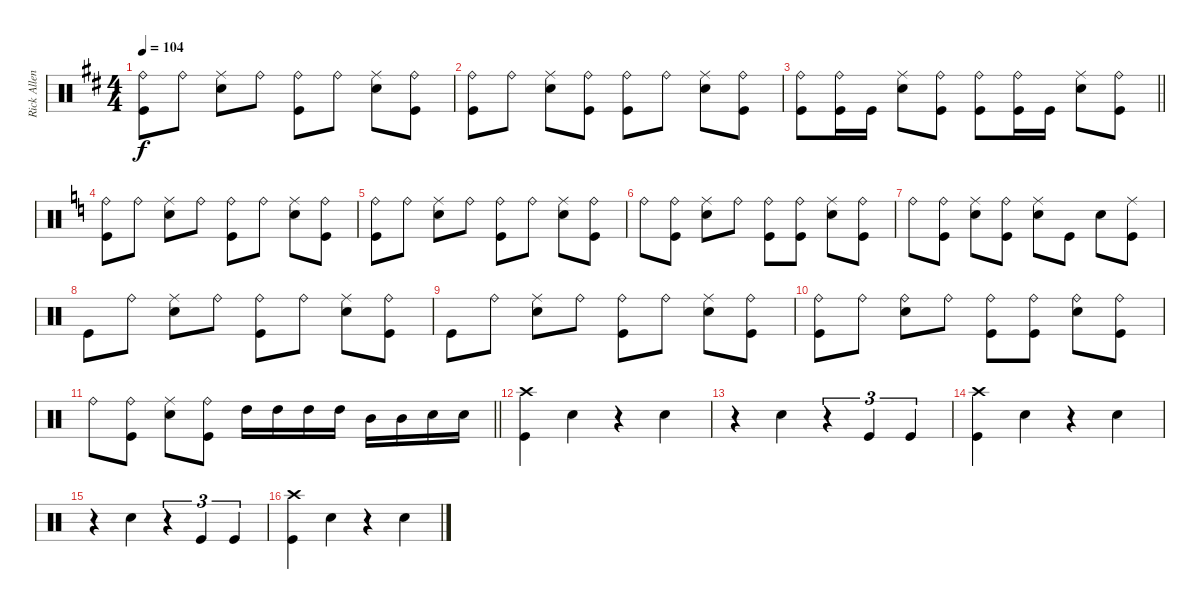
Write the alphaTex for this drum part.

\track ("Rick Allen" "Rick Allen") {instrument percussion}
\staff {score}
\articulation defaults
\ts (4 4)
\tempo 104
\clef neutral
\ks bminor
("Ride (bell)" "Kick (hit)").8{dy f} "Ride (bell)".8 ("Ride (middle)" "Snare (hit) 2").8 "Ride (bell)".8 ("Ride (bell)" "Kick (hit)").8 "Ride (bell)".8 ("Ride (middle)" "Snare (hit) 2").8 ("Ride (bell)" "Kick (hit)").8 |
("Ride (bell)" "Kick (hit)").8 "Ride (bell)".8 ("Ride (middle)" "Snare (hit) 2").8 ("Ride (bell)" "Kick (hit)").8 ("Ride (bell)" "Kick (hit)").8 "Ride (bell)".8 ("Ride (middle)" "Snare (hit) 2").8 ("Ride (bell)" "Kick (hit)").8 |
\barLineRight lightlight
("Ride (bell)" "Kick (hit)").8 ("Ride (bell)" "Kick (hit)").16 "Kick (hit)".16 ("Ride (middle)" "Snare (hit) 2").8 ("Ride (bell)" "Kick (hit)").8 ("Ride (bell)" "Kick (hit)").8 ("Ride (bell)" "Kick (hit)").16 "Kick (hit)".16 ("Ride (middle)" "Snare (hit) 2").8 ("Ride (bell)" "Kick (hit)").8 |
\ks aminor
("Ride (bell)" "Kick (hit)").8 "Ride (bell)".8 ("Ride (middle)" "Snare (hit) 2").8 "Ride (bell)".8 ("Ride (bell)" "Kick (hit)").8 "Ride (bell)".8 ("Ride (middle)" "Snare (hit) 2").8 ("Ride (bell)" "Kick (hit)").8 |
("Ride (bell)" "Kick (hit)").8 "Ride (bell)".8 ("Ride (middle)" "Snare (hit) 2").8 "Ride (bell)".8 ("Ride (bell)" "Kick (hit)").8 "Ride (bell)".8 ("Ride (middle)" "Snare (hit) 2").8 ("Ride (bell)" "Kick (hit)").8 |
"Ride (bell)".8 ("Ride (bell)" "Kick (hit)").8 ("Ride (middle)" "Snare (hit) 2").8 "Ride (bell)".8 ("Ride (bell)" "Kick (hit)").8 ("Ride (bell)" "Kick (hit)").8 ("Ride (middle)" "Snare (hit) 2").8 ("Ride (bell)" "Kick (hit)").8 |
"Ride (bell)".8 ("Ride (bell)" "Kick (hit)").8 ("Ride (middle)" "Snare (hit) 2").8 ("Ride (bell)" "Kick (hit)").8 ("Ride (middle)" "Snare (hit) 2").8 "Kick (hit)".8 "Snare (hit) 2".8 ("Ride (middle)" "Kick (hit)").8 |
"Kick (hit)".8 "Ride (bell)".8 ("Ride (middle)" "Snare (hit) 2").8 "Ride (bell)".8 ("Ride (bell)" "Kick (hit)").8 "Ride (bell)".8 ("Ride (middle)" "Snare (hit) 2").8 ("Ride (bell)" "Kick (hit)").8 |
"Kick (hit)".8 "Ride (bell)".8 ("Ride (middle)" "Snare (hit) 2").8 "Ride (bell)".8 ("Ride (bell)" "Kick (hit)").8 "Ride (bell)".8 ("Ride (middle)" "Snare (hit) 2").8 ("Ride (bell)" "Kick (hit)").8 |
("Ride (bell)" "Kick (hit)").8 "Ride (bell)".8 ("Ride (bell)" "Snare (hit) 2").8 "Ride (bell)".8 ("Ride (bell)" "Kick (hit)").8 ("Ride (bell)" "Kick (hit)").8 ("Ride (bell)" "Snare (hit) 2").8 ("Ride (bell)" "Kick (hit)").8 |
\barLineRight lightlight "Ride (bell)".8
("Ride (bell)" "Kick (hit)").8 ("Ride (middle)" "Snare (hit) 2").8 ("Ride (bell)" "Kick (hit)").8 "High Tom (hit)".16 "High Tom (hit)".16 "High Tom (hit)".16 "High Tom (hit)".16 "Mid Tom (hit)".16 "Mid Tom (hit)".16 "Snare (hit) 2".16 "Snare (hit) 2".16 |
("Crash high (hit)" "Kick (hit)").4 "Snare (hit) 2".4 r.4 "Snare (hit) 2".4 |
r.4 "Snare (hit) 2".4 r.4{tu (3 2)} "Kick (hit)".4{tu (3 2)} "Kick (hit)".4{tu (3 2)} |
("Crash high (hit)" "Kick (hit)").4 "Snare (hit) 2".4 r.4 "Snare (hit) 2".4 |
r.4 "Snare (hit) 2".4 r.4{tu (3 2)} "Kick (hit)".4{tu (3 2)} "Kick (hit)".4{tu (3 2)} |
("Crash high (hit)" "Kick (hit)").4 "Snare (hit) 2".4 r.4 "Snare (hit) 2".4
